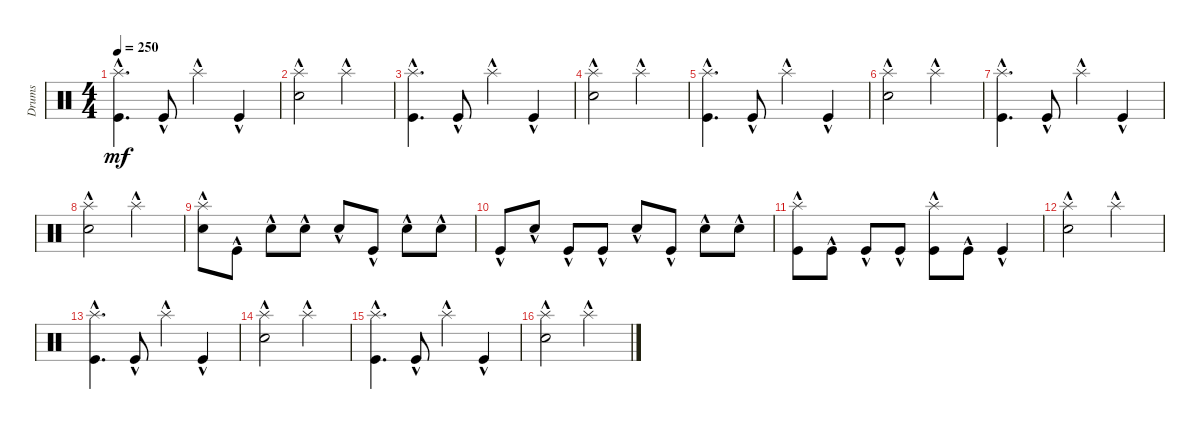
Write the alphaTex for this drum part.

\track ("Drums" "Drums") {instrument percussion}
\staff {score}
\articulation defaults
\ts (4 4)
\tempo 250
\clef neutral
\ks c
("Kick (hit)"{hac} "Splash (hit)"{hac}).4{d dy mf} "Kick (hit)"{hac}.8 "Splash (hit)"{hac}.4 "Kick (hit)"{hac}.4 |
("Snare (hit) 2"{hac} "Splash (hit)"{hac}).2 "Splash (hit)"{hac}.2 |
("Kick (hit)"{hac} "Splash (hit)"{hac}).4{d} "Kick (hit)"{hac}.8 "Splash (hit)"{hac}.4 "Kick (hit)"{hac}.4 |
("Snare (hit) 2"{hac} "Splash (hit)"{hac}).2 "Splash (hit)"{hac}.2 |
("Kick (hit)"{hac} "Splash (hit)"{hac}).4{d} "Kick (hit)"{hac}.8 "Splash (hit)"{hac}.4 "Kick (hit)"{hac}.4 |
("Snare (hit) 2"{hac} "Splash (hit)"{hac}).2 "Splash (hit)"{hac}.2 |
("Kick (hit)"{hac} "Splash (hit)"{hac}).4{d} "Kick (hit)"{hac}.8 "Splash (hit)"{hac}.4 "Kick (hit)"{hac}.4 |
("Snare (hit) 2"{hac} "Splash (hit)"{hac}).2 "Splash (hit)"{hac}.2 |
("Snare (hit) 2"{hac} "Splash (hit)"{hac}).8 "Kick (hit)"{hac}.8 "Snare (hit) 2"{hac}.8 "Snare (hit) 2"{hac}.8 "Snare (hit) 2"{hac}.8 "Kick (hit)"{hac}.8 "Snare (hit) 2"{hac}.8 "Snare (hit) 2"{hac}.8 |
"Kick (hit)"{hac}.8 "Snare (hit) 2"{hac}.8 "Kick (hit)"{hac}.8 "Kick (hit)"{hac}.8 "Snare (hit) 2"{hac}.8 "Kick (hit)"{hac}.8 "Snare (hit) 2"{hac}.8 "Snare (hit) 2"{hac}.8 |
("Splash (hit)"{hac} "Kick (hit)"{hac}).8 "Kick (hit)"{hac}.8 "Kick (hit)"{hac}.8 "Kick (hit)"{hac}.8 ("Kick (hit)"{hac} "Splash (hit)"{hac}).8 "Kick (hit)"{hac}.8 "Kick (hit)"{hac}.4 |
("Snare (hit) 2"{hac} "Splash (hit)"{hac}).2 "Splash (hit)"{hac}.2 |
("Kick (hit)"{hac} "Splash (hit)"{hac}).4{d} "Kick (hit)"{hac}.8 "Splash (hit)"{hac}.4 "Kick (hit)"{hac}.4 |
("Snare (hit) 2"{hac} "Splash (hit)"{hac}).2 "Splash (hit)"{hac}.2 |
("Kick (hit)"{hac} "Splash (hit)"{hac}).4{d} "Kick (hit)"{hac}.8 "Splash (hit)"{hac}.4 "Kick (hit)"{hac}.4 |
("Snare (hit) 2"{hac} "Splash (hit)"{hac}).2 "Splash (hit)"{hac}.2
